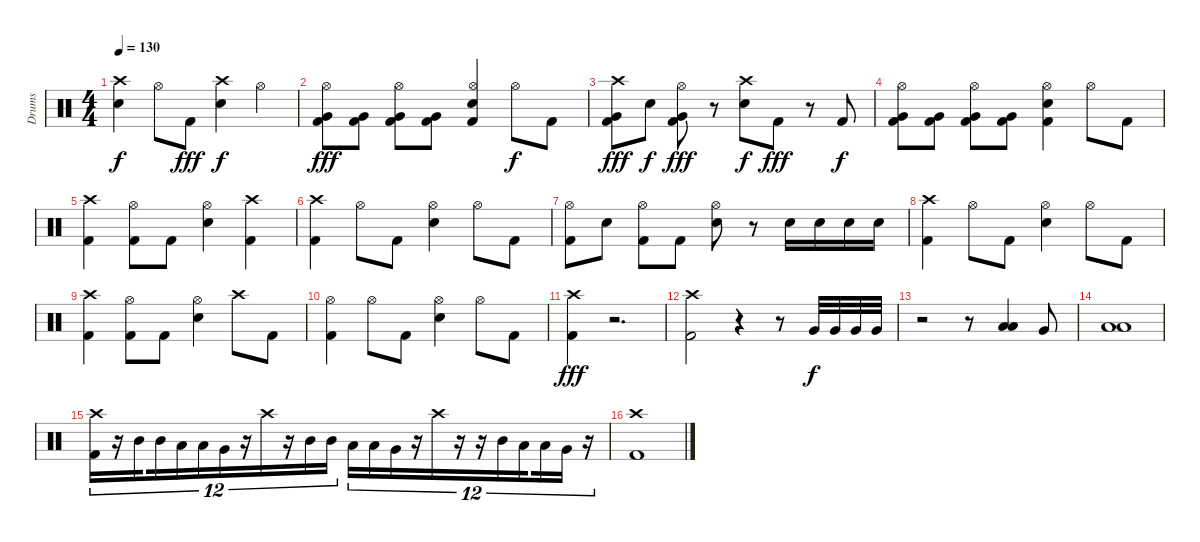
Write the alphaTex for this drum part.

\track ("Drums" "Drums") {instrument percussion}
\staff {score}
\articulation defaults
\ts (4 4)
\tempo 130
\clef neutral
\ks c
("Crash high (hit)" "Snare (hit) 2").4{dy f} "Hi-Hat (open)".8 "Kick (hit) 2".8{dy fff} ("Crash high (hit)" "Snare (hit) 2").4{dy f} "Hi-Hat (open)".4 |
("Hi-Hat (open)" "Very Low Tom (hit)" "Kick (hit) 2").8{dy fff} ("Very Low Tom (hit)" "Kick (hit) 2").8 ("Hi-Hat (open)" "Very Low Tom (hit)" "Kick (hit) 2").8 ("Very Low Tom (hit)" "Kick (hit) 2").8 ("Hi-Hat (open)" "Snare (hit) 2" "Kick (hit) 2").4 "Hi-Hat (open)".8{dy f} "Kick (hit) 2".8 |
("Crash high (hit)" "Very Low Tom (hit)" "Kick (hit) 2").8{dy fff} "Snare (hit) 2".8{dy f} ("Hi-Hat (open)" "Very Low Tom (hit)" "Kick (hit) 2").8{dy fff} r.8 ("Crash high (hit)" "Snare (hit) 2").8{dy f} "Kick (hit) 2".8{dy fff} r.8 "Kick (hit) 2".8{dy f} |
("Hi-Hat (open)" "Very Low Tom (hit)" "Kick (hit) 2").8 ("Very Low Tom (hit)" "Kick (hit) 2").8 ("Hi-Hat (open)" "Very Low Tom (hit)" "Kick (hit) 2").8 ("Very Low Tom (hit)" "Kick (hit) 2").8 ("Hi-Hat (open)" "Electric Snare (hit)" "Kick (hit) 2").4 "Hi-Hat (open)".8 "Kick (hit) 2".8 |
("Crash high (hit)" "Kick (hit) 2").4 ("Hi-Hat (open)" "Kick (hit) 2").8 "Kick (hit) 2".8 ("Hi-Hat (open)" "Snare (hit) 2").4 ("Crash high (hit)" "Kick (hit) 2").4 |
("Crash high (hit)" "Kick (hit) 2").4 "Hi-Hat (open)".8 "Kick (hit) 2".8 ("Hi-Hat (open)" "Snare (hit) 2").4 "Hi-Hat (open)".8 "Kick (hit) 2".8 |
("Hi-Hat (open)" "Kick (hit) 2").8 "Snare (hit) 2".8 ("Hi-Hat (open)" "Kick (hit) 2").8 "Kick (hit) 2".8 ("Hi-Hat (open)" "Snare (hit) 2").8 r.8 "Snare (hit) 2".16 "Snare (hit) 2".16 "Snare (hit) 2".16 "Snare (hit) 2".16 |
("Crash high (hit)" "Kick (hit) 2").4 "Hi-Hat (open)".8 "Kick (hit) 2".8 ("Hi-Hat (open)" "Snare (hit) 2").4 "Hi-Hat (open)".8 "Kick (hit) 2".8 |
("Crash high (hit)" "Kick (hit) 2").4 ("Hi-Hat (open)" "Kick (hit) 2").8 "Kick (hit) 2".8 ("Hi-Hat (open)" "Snare (hit) 2").4 "Crash high (hit)".8 "Kick (hit) 2".8 |
("Hi-Hat (open)" "Kick (hit) 2").4 "Hi-Hat (open)".8 "Kick (hit) 2".8 ("Hi-Hat (open)" "Snare (hit) 2").4 "Hi-Hat (open)".8 "Kick (hit) 2".8 |
("Crash high (hit)" "Kick (hit) 2").4{dy fff} r.2{d} |
("Crash high (hit)" "Kick (hit) 2").2 r.4 r.8 "Very Low Tom (hit)".32{dy f} "Very Low Tom (hit)".32 "Very Low Tom (hit)".32 "Very Low Tom (hit)".32 |
r.2 r.8 ("Low Tom (hit)" "Low Tom (hit)").4{bd 240} "Very Low Tom (hit)".8 |
("Low Floor Tom (hit)" "Low Floor Tom (hit)").1{bd 120} |
("Crash high (hit)" "Kick (hit) 2").16{tu (12 8)} r.16{tu (12 8)} "Mid Tom (hit)".16{tu (12 8) beam splitsecondary} "Mid Tom (hit)".16{tu (12 8)} "Low Tom (hit)".16{tu (12 8)} "Low Tom (hit)".16{tu (12 8)} "Very Low Tom (hit)".16{tu (12 8)} r.16{tu (12 8)} "Crash high (hit)".16{tu (12 8)} r.16{tu (12 8)} "Mid Tom (hit)".16{tu (12 8)} "Mid Tom (hit)".16{tu (12 8)} "Low Tom (hit)".16{tu (12 8)} "Low Tom (hit)".16{tu (12 8)} "Very Low Tom (hit)".16{tu (12 8)} r.16{tu (12 8)} "Crash high (hit)".16{tu (12 8)} r.16{tu (12 8)} r.16{tu (12 8)} "Mid Tom (hit)".16{tu (12 8)} "Low Tom (hit)".16{tu (12 8) beam splitsecondary} "Low Tom (hit)".16{tu (12 8)} "Very Low Tom (hit)".16{tu (12 8)} r.16{tu (12 8)} |
("Crash high (hit)" "Kick (hit) 2").1
